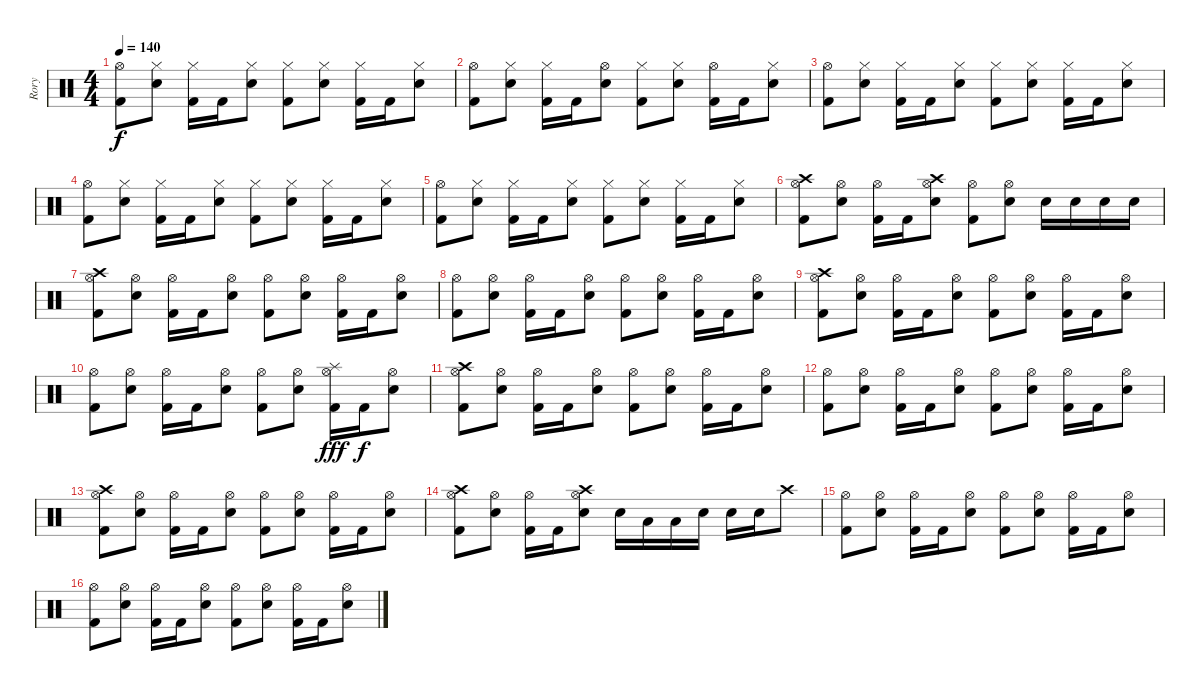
\track ("Rory" "Rory") {instrument percussion}
\staff {score}
\articulation defaults
\ts (4 4)
\tempo 140
\clef neutral
\ks c
("Hi-Hat (open)" "Kick (hit) 2").8{dy f} ("Hi-Hat (closed)" "Electric Snare (hit)").8 ("Hi-Hat (closed)" "Kick (hit) 2").16 "Kick (hit) 2".16 ("Hi-Hat (closed)" "Electric Snare (hit)").8 ("Hi-Hat (closed)" "Kick (hit) 2").8 ("Hi-Hat (closed)" "Electric Snare (hit)").8 ("Hi-Hat (closed)" "Kick (hit) 2").16 "Kick (hit) 2".16 ("Hi-Hat (closed)" "Electric Snare (hit)").8 |
("Hi-Hat (open)" "Kick (hit) 2").8 ("Hi-Hat (closed)" "Electric Snare (hit)").8 ("Hi-Hat (closed)" "Kick (hit) 2").16 "Kick (hit) 2".16 ("Hi-Hat (open)" "Electric Snare (hit)").8 ("Hi-Hat (closed)" "Kick (hit) 2").8 ("Hi-Hat (closed)" "Electric Snare (hit)").8 ("Hi-Hat (open)" "Kick (hit) 2").16 "Kick (hit) 2".16 ("Hi-Hat (closed)" "Electric Snare (hit)").8 |
("Hi-Hat (open)" "Kick (hit) 2").8 ("Hi-Hat (closed)" "Electric Snare (hit)").8 ("Hi-Hat (closed)" "Kick (hit) 2").16 "Kick (hit) 2".16 ("Hi-Hat (closed)" "Electric Snare (hit)").8 ("Hi-Hat (closed)" "Kick (hit) 2").8 ("Hi-Hat (closed)" "Electric Snare (hit)").8 ("Hi-Hat (closed)" "Kick (hit) 2").16 "Kick (hit) 2".16 ("Hi-Hat (closed)" "Electric Snare (hit)").8 |
("Hi-Hat (open)" "Kick (hit) 2").8 ("Hi-Hat (closed)" "Electric Snare (hit)").8 ("Hi-Hat (closed)" "Kick (hit) 2").16 "Kick (hit) 2".16 ("Hi-Hat (closed)" "Electric Snare (hit)").8 ("Hi-Hat (closed)" "Kick (hit) 2").8 ("Hi-Hat (closed)" "Electric Snare (hit)").8 ("Hi-Hat (closed)" "Kick (hit) 2").16 "Kick (hit) 2".16 ("Hi-Hat (closed)" "Electric Snare (hit)").8 |
("Hi-Hat (open)" "Kick (hit) 2").8 ("Hi-Hat (closed)" "Electric Snare (hit)").8 ("Hi-Hat (closed)" "Kick (hit) 2").16 "Kick (hit) 2".16 ("Hi-Hat (closed)" "Electric Snare (hit)").8 ("Hi-Hat (closed)" "Kick (hit) 2").8 ("Hi-Hat (closed)" "Electric Snare (hit)").8 ("Hi-Hat (closed)" "Kick (hit) 2").16 "Kick (hit) 2".16 ("Hi-Hat (closed)" "Electric Snare (hit)").8 |
("Crash high (hit)" "Hi-Hat (open)" "Kick (hit) 2").8 ("Hi-Hat (open)" "Electric Snare (hit)").8 ("Hi-Hat (open)" "Kick (hit) 2").16 "Kick (hit) 2".16 ("Crash high (hit)" "Hi-Hat (open)" "Electric Snare (hit)").8 ("Hi-Hat (open)" "Kick (hit) 2").8 ("Hi-Hat (open)" "Electric Snare (hit)").8 "Electric Snare (hit)".16 "Electric Snare (hit)".16 "Electric Snare (hit)".16 "Electric Snare (hit)".16 |
("Crash high (hit)" "Hi-Hat (open)" "Kick (hit) 2").8 ("Hi-Hat (open)" "Electric Snare (hit)").8 ("Hi-Hat (open)" "Kick (hit) 2").16 "Kick (hit) 2".16 ("Hi-Hat (open)" "Electric Snare (hit)").8 ("Hi-Hat (open)" "Kick (hit) 2").8 ("Hi-Hat (open)" "Electric Snare (hit)").8 ("Hi-Hat (open)" "Kick (hit) 2").16 "Kick (hit) 2".16 ("Hi-Hat (open)" "Electric Snare (hit)").8 |
("Hi-Hat (open)" "Kick (hit) 2").8 ("Hi-Hat (open)" "Electric Snare (hit)").8 ("Hi-Hat (open)" "Kick (hit) 2").16 "Kick (hit) 2".16 ("Hi-Hat (open)" "Electric Snare (hit)").8 ("Hi-Hat (open)" "Kick (hit) 2").8 ("Hi-Hat (open)" "Electric Snare (hit)").8 ("Hi-Hat (open)" "Kick (hit) 2").16 "Kick (hit) 2".16 ("Hi-Hat (open)" "Electric Snare (hit)").8 |
("Crash high (hit)" "Hi-Hat (open)" "Kick (hit) 2").8 ("Hi-Hat (open)" "Electric Snare (hit)").8 ("Hi-Hat (open)" "Kick (hit) 2").16 "Kick (hit) 2".16 ("Hi-Hat (open)" "Electric Snare (hit)").8 ("Hi-Hat (open)" "Kick (hit) 2").8 ("Hi-Hat (open)" "Electric Snare (hit)").8 ("Hi-Hat (open)" "Kick (hit) 2").16 "Kick (hit) 2".16 ("Hi-Hat (open)" "Electric Snare (hit)").8 |
("Hi-Hat (open)" "Kick (hit) 2").8 ("Hi-Hat (open)" "Electric Snare (hit)").8 ("Hi-Hat (open)" "Kick (hit) 2").16 "Kick (hit) 2".16 ("Hi-Hat (open)" "Electric Snare (hit)").8 ("Hi-Hat (open)" "Kick (hit) 2").8 ("Hi-Hat (open)" "Electric Snare (hit)").8 ("Splash (hit)" "Hi-Hat (open)" "Kick (hit) 2").16{dy fff} "Kick (hit) 2".16{dy f} ("Hi-Hat (open)" "Electric Snare (hit)").8 |
("Crash high (hit)" "Hi-Hat (open)" "Kick (hit) 2").8 ("Hi-Hat (open)" "Electric Snare (hit)").8 ("Hi-Hat (open)" "Kick (hit) 2").16 "Kick (hit) 2".16 ("Hi-Hat (open)" "Electric Snare (hit)").8 ("Hi-Hat (open)" "Kick (hit) 2").8 ("Hi-Hat (open)" "Electric Snare (hit)").8 ("Hi-Hat (open)" "Kick (hit) 2").16 "Kick (hit) 2".16 ("Hi-Hat (open)" "Electric Snare (hit)").8 |
("Hi-Hat (open)" "Kick (hit) 2").8 ("Hi-Hat (open)" "Electric Snare (hit)").8 ("Hi-Hat (open)" "Kick (hit) 2").16 "Kick (hit) 2".16 ("Hi-Hat (open)" "Electric Snare (hit)").8 ("Hi-Hat (open)" "Kick (hit) 2").8 ("Hi-Hat (open)" "Electric Snare (hit)").8 ("Hi-Hat (open)" "Kick (hit) 2").16 "Kick (hit) 2".16 ("Hi-Hat (open)" "Electric Snare (hit)").8 |
("Crash high (hit)" "Hi-Hat (open)" "Kick (hit) 2").8 ("Hi-Hat (open)" "Electric Snare (hit)").8 ("Hi-Hat (open)" "Kick (hit) 2").16 "Kick (hit) 2".16 ("Hi-Hat (open)" "Electric Snare (hit)").8 ("Hi-Hat (open)" "Kick (hit) 2").8 ("Hi-Hat (open)" "Electric Snare (hit)").8 ("Hi-Hat (open)" "Kick (hit) 2").16 "Kick (hit) 2".16 ("Hi-Hat (open)" "Electric Snare (hit)").8 |
("Crash high (hit)" "Hi-Hat (open)" "Kick (hit) 2").8 ("Hi-Hat (open)" "Electric Snare (hit)").8 ("Hi-Hat (open)" "Kick (hit) 2").16 "Kick (hit) 2".16 ("Crash high (hit)" "Hi-Hat (open)" "Electric Snare (hit)").8 "Electric Snare (hit)".16 "Low Tom (hit)".16 "Low Tom (hit)".16 "Electric Snare (hit)".16 "Electric Snare (hit)".16 "Electric Snare (hit)".16 "Crash high (hit)".8 |
("Hi-Hat (open)" "Kick (hit) 2").8 ("Hi-Hat (open)" "Electric Snare (hit)").8 ("Hi-Hat (open)" "Kick (hit) 2").16 "Kick (hit) 2".16 ("Hi-Hat (open)" "Electric Snare (hit)").8 ("Hi-Hat (open)" "Kick (hit) 2").8 ("Hi-Hat (open)" "Electric Snare (hit)").8 ("Hi-Hat (open)" "Kick (hit) 2").16 "Kick (hit) 2".16 ("Hi-Hat (open)" "Electric Snare (hit)").8 |
("Hi-Hat (open)" "Kick (hit) 2").8 ("Hi-Hat (open)" "Electric Snare (hit)").8 ("Hi-Hat (open)" "Kick (hit) 2").16 "Kick (hit) 2".16 ("Hi-Hat (open)" "Electric Snare (hit)").8 ("Hi-Hat (open)" "Kick (hit) 2").8 ("Hi-Hat (open)" "Electric Snare (hit)").8 ("Hi-Hat (open)" "Kick (hit) 2").16 "Kick (hit) 2".16 ("Hi-Hat (open)" "Electric Snare (hit)").8
